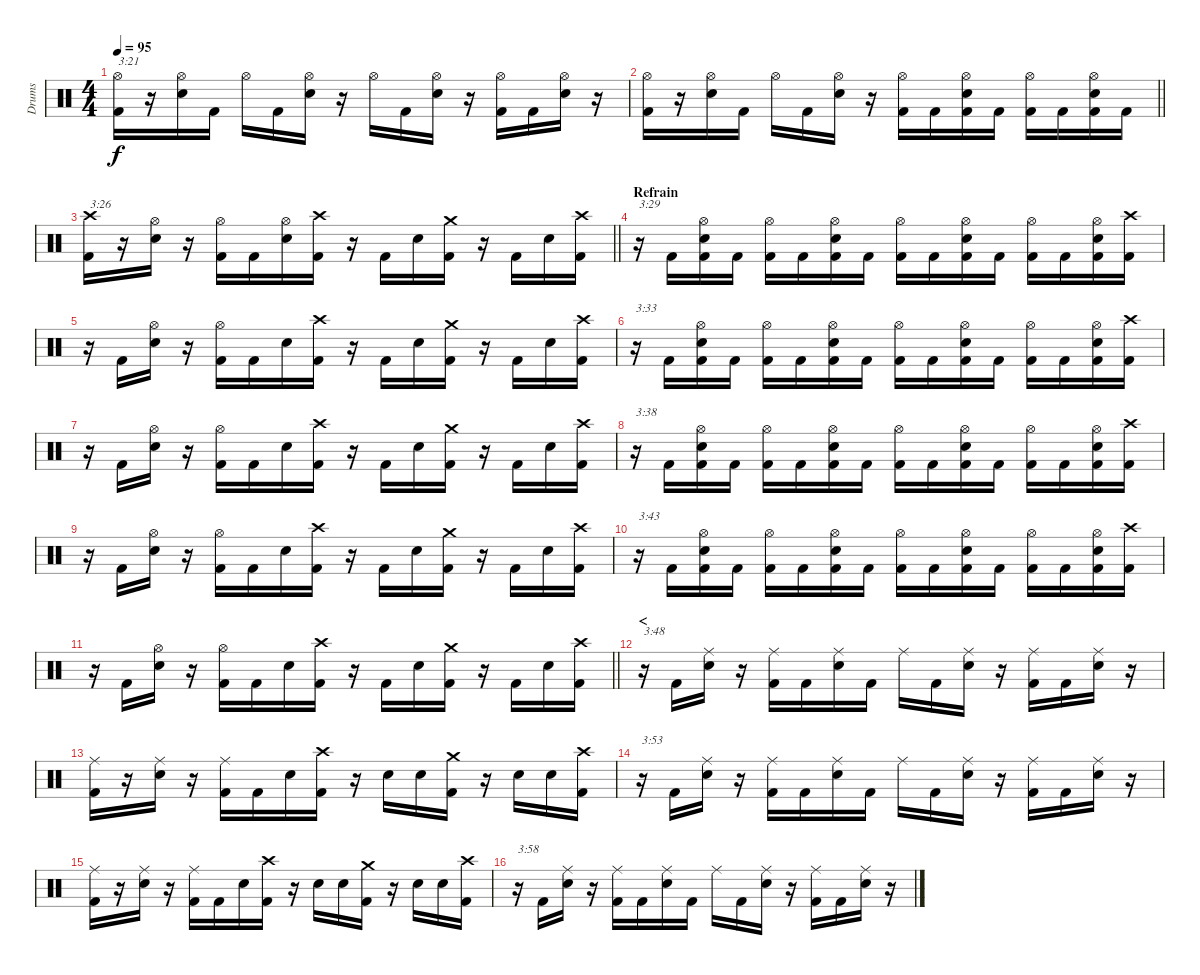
\track ("Drums" "Drums") {instrument percussion}
\staff {score}
\articulation defaults
\ts (4 4)
\tempo 95
\clef neutral
\ks c
("Hi-Hat (open)" "Kick (hit) 2").16{txt "3:21" dy f} r.16 ("Hi-Hat (open)" "Electric Snare (hit)").16 "Kick (hit) 2".16 "Hi-Hat (open)".16 "Kick (hit) 2".16 ("Hi-Hat (open)" "Electric Snare (hit)").16 r.16 "Hi-Hat (open)".16 "Kick (hit) 2".16 ("Hi-Hat (open)" "Electric Snare (hit)").16 r.16 ("Hi-Hat (open)" "Kick (hit) 2").16 "Kick (hit) 2".16 ("Hi-Hat (open)" "Electric Snare (hit)").16 r.16 |
\barLineRight lightlight
("Hi-Hat (open)" "Kick (hit) 2").16 r.16 ("Hi-Hat (open)" "Electric Snare (hit)").16 "Kick (hit) 2".16 "Hi-Hat (open)".16 "Kick (hit) 2".16 ("Hi-Hat (open)" "Electric Snare (hit)").16 r.16 ("Hi-Hat (open)" "Kick (hit) 2").16 "Kick (hit) 2".16 ("Hi-Hat (open)" "Electric Snare (hit)" "Kick (hit) 2").16 "Kick (hit) 2".16 ("Hi-Hat (open)" "Kick (hit) 2").16 "Kick (hit) 2".16 ("Hi-Hat (open)" "Electric Snare (hit)" "Kick (hit) 2").16 "Kick (hit) 2".16 |
\barLineRight lightlight
("Crash high (hit)" "Kick (hit) 2").16{txt "3:26"} r.16 ("Hi-Hat (open)" "Electric Snare (hit)").16 r.16 ("Hi-Hat (open)" "Kick (hit) 2").16 "Kick (hit) 2".16 ("Hi-Hat (open)" "Electric Snare (hit)").16 ("Crash high (hit)" "Kick (hit) 2").16 r.16 "Kick (hit) 2".16 "Electric Snare (hit)".16 ("Crash medium (hit)" "Kick (hit) 2").16 r.16 "Kick (hit) 2".16 "Electric Snare (hit)".16 ("Crash high (hit)" "Kick (hit) 2").16 |
\section ("" "Refrain")
r.16{txt "3:29"} "Kick (hit) 2".16 ("Hi-Hat (open)" "Electric Snare (hit)" "Kick (hit) 2").16 "Kick (hit) 2".16 ("Hi-Hat (open)" "Kick (hit) 2").16 "Kick (hit) 2".16 ("Hi-Hat (open)" "Electric Snare (hit)" "Kick (hit) 2").16 "Kick (hit) 2".16 ("Hi-Hat (open)" "Kick (hit) 2").16 "Kick (hit) 2".16 ("Hi-Hat (open)" "Electric Snare (hit)" "Kick (hit) 2").16 "Kick (hit) 2".16 ("Hi-Hat (open)" "Kick (hit) 2").16 "Kick (hit) 2".16 ("Hi-Hat (open)" "Electric Snare (hit)" "Kick (hit) 2").16 ("Crash high (hit)" "Kick (hit) 2").16 |
r.16 "Kick (hit) 2".16 ("Hi-Hat (open)" "Electric Snare (hit)").16 r.16 ("Hi-Hat (open)" "Kick (hit) 2").16 "Kick (hit) 2".16 "Electric Snare (hit)".16 ("Crash high (hit)" "Kick (hit) 2").16 r.16 "Kick (hit) 2".16 "Electric Snare (hit)".16 ("Crash medium (hit)" "Kick (hit) 2").16 r.16 "Kick (hit) 2".16 "Electric Snare (hit)".16 ("Crash high (hit)" "Kick (hit) 2").16 |
r.16{txt "3:33"} "Kick (hit) 2".16 ("Hi-Hat (open)" "Electric Snare (hit)" "Kick (hit) 2").16 "Kick (hit) 2".16 ("Hi-Hat (open)" "Kick (hit) 2").16 "Kick (hit) 2".16 ("Hi-Hat (open)" "Electric Snare (hit)" "Kick (hit) 2").16 "Kick (hit) 2".16 ("Hi-Hat (open)" "Kick (hit) 2").16 "Kick (hit) 2".16 ("Hi-Hat (open)" "Electric Snare (hit)" "Kick (hit) 2").16 "Kick (hit) 2".16 ("Hi-Hat (open)" "Kick (hit) 2").16 "Kick (hit) 2".16 ("Hi-Hat (open)" "Electric Snare (hit)" "Kick (hit) 2").16 ("Crash high (hit)" "Kick (hit) 2").16 |
r.16 "Kick (hit) 2".16 ("Hi-Hat (open)" "Electric Snare (hit)").16 r.16 ("Hi-Hat (open)" "Kick (hit) 2").16 "Kick (hit) 2".16 "Electric Snare (hit)".16 ("Crash high (hit)" "Kick (hit) 2").16 r.16 "Kick (hit) 2".16 "Electric Snare (hit)".16 ("Crash medium (hit)" "Kick (hit) 2").16 r.16 "Kick (hit) 2".16 "Electric Snare (hit)".16 ("Crash high (hit)" "Kick (hit) 2").16 |
r.16{txt "3:38"} "Kick (hit) 2".16 ("Hi-Hat (open)" "Electric Snare (hit)" "Kick (hit) 2").16 "Kick (hit) 2".16 ("Hi-Hat (open)" "Kick (hit) 2").16 "Kick (hit) 2".16 ("Hi-Hat (open)" "Electric Snare (hit)" "Kick (hit) 2").16 "Kick (hit) 2".16 ("Hi-Hat (open)" "Kick (hit) 2").16 "Kick (hit) 2".16 ("Hi-Hat (open)" "Electric Snare (hit)" "Kick (hit) 2").16 "Kick (hit) 2".16 ("Hi-Hat (open)" "Kick (hit) 2").16 "Kick (hit) 2".16 ("Hi-Hat (open)" "Electric Snare (hit)" "Kick (hit) 2").16 ("Crash high (hit)" "Kick (hit) 2").16 |
r.16 "Kick (hit) 2".16 ("Hi-Hat (open)" "Electric Snare (hit)").16 r.16 ("Hi-Hat (open)" "Kick (hit) 2").16 "Kick (hit) 2".16 "Electric Snare (hit)".16 ("Crash high (hit)" "Kick (hit) 2").16 r.16 "Kick (hit) 2".16 "Electric Snare (hit)".16 ("Crash medium (hit)" "Kick (hit) 2").16 r.16 "Kick (hit) 2".16 "Electric Snare (hit)".16 ("Crash high (hit)" "Kick (hit) 2").16 |
r.16{txt "3:43"} "Kick (hit) 2".16 ("Hi-Hat (open)" "Electric Snare (hit)" "Kick (hit) 2").16 "Kick (hit) 2".16 ("Hi-Hat (open)" "Kick (hit) 2").16 "Kick (hit) 2".16 ("Hi-Hat (open)" "Electric Snare (hit)" "Kick (hit) 2").16 "Kick (hit) 2".16 ("Hi-Hat (open)" "Kick (hit) 2").16 "Kick (hit) 2".16 ("Hi-Hat (open)" "Electric Snare (hit)" "Kick (hit) 2").16 "Kick (hit) 2".16 ("Hi-Hat (open)" "Kick (hit) 2").16 "Kick (hit) 2".16 ("Hi-Hat (open)" "Electric Snare (hit)" "Kick (hit) 2").16 ("Crash high (hit)" "Kick (hit) 2").16 |
\barLineRight lightlight
r.16 "Kick (hit) 2".16 ("Hi-Hat (open)" "Electric Snare (hit)").16 r.16 ("Hi-Hat (open)" "Kick (hit) 2").16 "Kick (hit) 2".16 "Electric Snare (hit)".16 ("Crash high (hit)" "Kick (hit) 2").16 r.16 "Kick (hit) 2".16 "Electric Snare (hit)".16 ("Crash medium (hit)" "Kick (hit) 2").16 r.16 "Kick (hit) 2".16 "Electric Snare (hit)".16 ("Crash high (hit)" "Kick (hit) 2").16 |
\section ("" "<")
r.16{txt "3:48"} "Kick (hit) 2".16 ("Ride (middle)" "Electric Snare (hit)").16 r.16 ("Ride (middle)" "Kick (hit) 2").16 "Kick (hit) 2".16 ("Ride (middle)" "Electric Snare (hit)").16 "Kick (hit) 2".16 "Ride (middle)".16 "Kick (hit) 2".16 ("Ride (middle)" "Electric Snare (hit)").16 r.16 ("Ride (middle)" "Kick (hit) 2").16 "Kick (hit) 2".16 ("Ride (middle)" "Electric Snare (hit)").16 r.16 |
("Ride (middle)" "Kick (hit) 2").16 r.16 ("Ride (middle)" "Electric Snare (hit)").16 r.16 ("Ride (middle)" "Kick (hit) 2").16 "Kick (hit) 2".16 "Electric Snare (hit)".16 ("Crash high (hit)" "Kick (hit) 2").16 r.16 "Electric Snare (hit)".16 "Electric Snare (hit)".16 ("Crash medium (hit)" "Kick (hit) 2").16 r.16 "Electric Snare (hit)".16 "Electric Snare (hit)".16 ("Crash high (hit)" "Kick (hit) 2").16 |
r.16{txt "3:53"} "Kick (hit) 2".16 ("Ride (middle)" "Electric Snare (hit)").16 r.16 ("Ride (middle)" "Kick (hit) 2").16 "Kick (hit) 2".16 ("Ride (middle)" "Electric Snare (hit)").16 "Kick (hit) 2".16 "Ride (middle)".16 "Kick (hit) 2".16 ("Ride (middle)" "Electric Snare (hit)").16 r.16 ("Ride (middle)" "Kick (hit) 2").16 "Kick (hit) 2".16 ("Ride (middle)" "Electric Snare (hit)").16 r.16 |
("Ride (middle)" "Kick (hit) 2").16 r.16 ("Ride (middle)" "Electric Snare (hit)").16 r.16 ("Ride (middle)" "Kick (hit) 2").16 "Kick (hit) 2".16 "Electric Snare (hit)".16 ("Crash high (hit)" "Kick (hit) 2").16 r.16 "Electric Snare (hit)".16 "Electric Snare (hit)".16 ("Crash medium (hit)" "Kick (hit) 2").16 r.16 "Electric Snare (hit)".16 "Electric Snare (hit)".16 ("Crash high (hit)" "Kick (hit) 2").16 |
r.16{txt "3:58"} "Kick (hit) 2".16 ("Ride (middle)" "Electric Snare (hit)").16 r.16 ("Ride (middle)" "Kick (hit) 2").16 "Kick (hit) 2".16 ("Ride (middle)" "Electric Snare (hit)").16 "Kick (hit) 2".16 "Ride (middle)".16 "Kick (hit) 2".16 ("Ride (middle)" "Electric Snare (hit)").16 r.16 ("Ride (middle)" "Kick (hit) 2").16 "Kick (hit) 2".16 ("Ride (middle)" "Electric Snare (hit)").16 r.16
